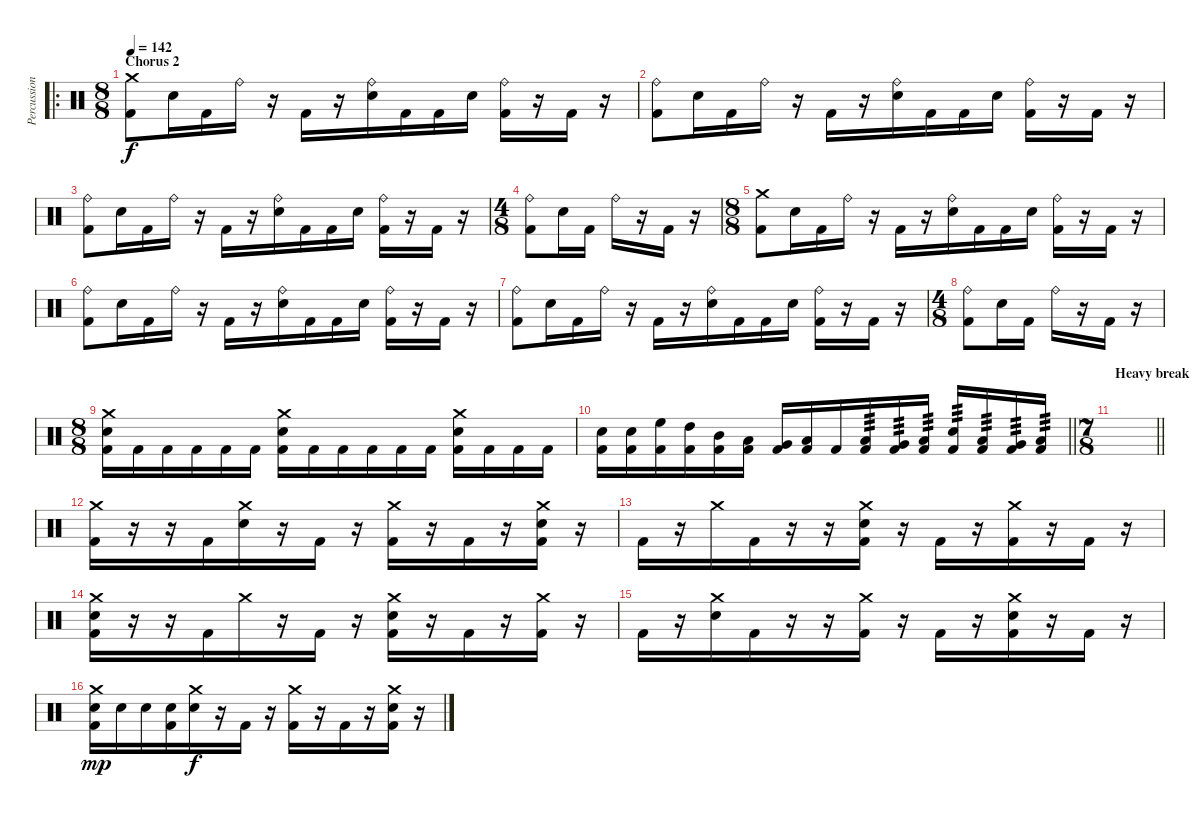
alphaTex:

\track ("Percussions" "Percussion") {instrument percussion}
\staff {score}
\articulation defaults
\ro
\ts (8 8)
\section ("" "Chorus 2")
\tempo 142
\clef neutral
\ks c
("Crash medium (hit)" "Kick (hit) 2").8{dy f} "Electric Snare (hit)".16 "Kick (hit) 2".16 "Ride (bell)".16 r.16 "Kick (hit) 2".16 r.16 ("Ride (bell)" "Electric Snare (hit)").16 "Kick (hit) 2".16 "Kick (hit) 2".16 "Electric Snare (hit)".16 ("Ride (bell)" "Kick (hit) 2").16 r.16 "Kick (hit) 2".16 r.16 |
("Ride (bell)" "Kick (hit) 2").8 "Electric Snare (hit)".16 "Kick (hit) 2".16 "Ride (bell)".16 r.16 "Kick (hit) 2".16 r.16 ("Ride (bell)" "Electric Snare (hit)").16 "Kick (hit) 2".16 "Kick (hit) 2".16 "Electric Snare (hit)".16 ("Ride (bell)" "Kick (hit) 2").16 r.16 "Kick (hit) 2".16 r.16 |
("Ride (bell)" "Kick (hit) 2").8 "Electric Snare (hit)".16 "Kick (hit) 2".16 "Ride (bell)".16 r.16 "Kick (hit) 2".16 r.16 ("Ride (bell)" "Electric Snare (hit)").16 "Kick (hit) 2".16 "Kick (hit) 2".16 "Electric Snare (hit)".16 ("Ride (bell)" "Kick (hit) 2").16 r.16 "Kick (hit) 2".16 r.16 |
\ts (4 8)
("Ride (bell)" "Kick (hit) 2").8 "Electric Snare (hit)".16 "Kick (hit) 2".16 "Ride (bell)".16 r.16 "Kick (hit) 2".16 r.16 |
\ts (8 8)
("Crash medium (hit)" "Kick (hit) 2").8 "Electric Snare (hit)".16 "Kick (hit) 2".16 "Ride (bell)".16 r.16 "Kick (hit) 2".16 r.16 ("Ride (bell)" "Electric Snare (hit)").16 "Kick (hit) 2".16 "Kick (hit) 2".16 "Electric Snare (hit)".16 ("Ride (bell)" "Kick (hit) 2").16 r.16 "Kick (hit) 2".16 r.16 |
("Ride (bell)" "Kick (hit) 2").8 "Electric Snare (hit)".16 "Kick (hit) 2".16 "Ride (bell)".16 r.16 "Kick (hit) 2".16 r.16 ("Ride (bell)" "Electric Snare (hit)").16 "Kick (hit) 2".16 "Kick (hit) 2".16 "Electric Snare (hit)".16 ("Ride (bell)" "Kick (hit) 2").16 r.16 "Kick (hit) 2".16 r.16 |
("Ride (bell)" "Kick (hit) 2").8 "Electric Snare (hit)".16 "Kick (hit) 2".16 "Ride (bell)".16 r.16 "Kick (hit) 2".16 r.16 ("Ride (bell)" "Electric Snare (hit)").16 "Kick (hit) 2".16 "Kick (hit) 2".16 "Electric Snare (hit)".16 ("Ride (bell)" "Kick (hit) 2").16 r.16 "Kick (hit) 2".16 r.16 |
\ts (4 8)
("Ride (bell)" "Kick (hit) 2").8 "Electric Snare (hit)".16 "Kick (hit) 2".16 "Ride (bell)".16 r.16 "Kick (hit) 2".16 r.16 |
\ts (8 8)
("Crash medium (hit)" "Electric Snare (hit)" "Kick (hit) 2").16 "Kick (hit) 2".16 "Kick (hit) 2".16 "Kick (hit) 2".16 "Kick (hit) 2".16 "Kick (hit) 2".16 ("Crash medium (hit)" "Electric Snare (hit)" "Kick (hit) 2").16 "Kick (hit) 2".16 "Kick (hit) 2".16 "Kick (hit) 2".16 "Kick (hit) 2".16 "Kick (hit) 2".16 ("Crash medium (hit)" "Electric Snare (hit)" "Kick (hit) 2").16 "Kick (hit) 2".16 "Kick (hit) 2".16 "Kick (hit) 2".16 |
\barLineRight lightlight
("Electric Snare (hit)" "Kick (hit) 2").16 ("Electric Snare (hit)" "Kick (hit) 2").16 ("High Floor Tom (hit)" "Kick (hit) 2").16 ("High Tom (hit)" "Kick (hit) 2").16 ("Mid Tom (hit)" "Kick (hit) 2").16 ("Low Tom (hit)" "Kick (hit) 2").16 ("Very Low Tom (hit)" "Kick (hit) 2").16 ("Low Floor Tom (hit)" "Kick (hit) 2").16 "Kick (hit) 2".16 ("Low Tom (hit)" "Kick (hit) 2").16{tp 3} ("Very Low Tom (hit)" "Kick (hit) 2").16{tp 3} ("Low Floor Tom (hit)" "Kick (hit) 2").16{tp 3} ("Electric Snare (hit)" "Kick (hit) 2").16{tp 3} ("Low Tom (hit)" "Kick (hit) 2").16{tp 3} ("Very Low Tom (hit)" "Kick (hit) 2").16{tp 3} ("Low Floor Tom (hit)" "Kick (hit) 2").16{tp 3} |
\ts (7 8)
\section ("" "Heavy break")
\barLineRight lightlight
|
("Crash medium (hit)" "Kick (hit) 2").16 r.16 r.16 "Kick (hit) 2".16 ("Crash medium (hit)" "Electric Snare (hit)").16 r.16 "Kick (hit) 2".16 r.16 ("Crash medium (hit)" "Kick (hit) 2").16 r.16 "Kick (hit) 2".16 r.16 ("Crash medium (hit)" "Electric Snare (hit)" "Kick (hit) 2").16 r.16 |
"Kick (hit) 2".16 r.16 "Crash medium (hit)".16 "Kick (hit) 2".16 r.16 r.16 ("Crash medium (hit)" "Electric Snare (hit)" "Kick (hit) 2").16 r.16 "Kick (hit) 2".16 r.16 ("Crash medium (hit)" "Kick (hit) 2").16 r.16 "Kick (hit) 2".16 r.16 |
("Crash medium (hit)" "Electric Snare (hit)" "Kick (hit) 2").16 r.16 r.16 "Kick (hit) 2".16 "Crash medium (hit)".16 r.16 "Kick (hit) 2".16 r.16 ("Crash medium (hit)" "Electric Snare (hit)" "Kick (hit) 2").16 r.16 "Kick (hit) 2".16 r.16 ("Crash medium (hit)" "Kick (hit) 2").16 r.16 |
"Kick (hit) 2".16 r.16 ("Crash medium (hit)" "Electric Snare (hit)").16 "Kick (hit) 2".16 r.16 r.16 ("Crash medium (hit)" "Kick (hit) 2").16 r.16 "Kick (hit) 2".16 r.16 ("Crash medium (hit)" "Electric Snare (hit)" "Kick (hit) 2").16 r.16 "Kick (hit) 2".16 r.16 |
("Crash medium (hit)" "Electric Snare (hit)" "Kick (hit) 2").16{dy mp} "Electric Snare (hit)".16 "Electric Snare (hit)".16 ("Electric Snare (hit)" "Kick (hit) 2").16 ("Crash medium (hit)" "Electric Snare (hit)").16{dy f} r.16 "Kick (hit) 2".16 r.16 ("Crash medium (hit)" "Kick (hit) 2").16 r.16 "Kick (hit) 2".16 r.16 ("Crash medium (hit)" "Electric Snare (hit)" "Kick (hit) 2").16 r.16
